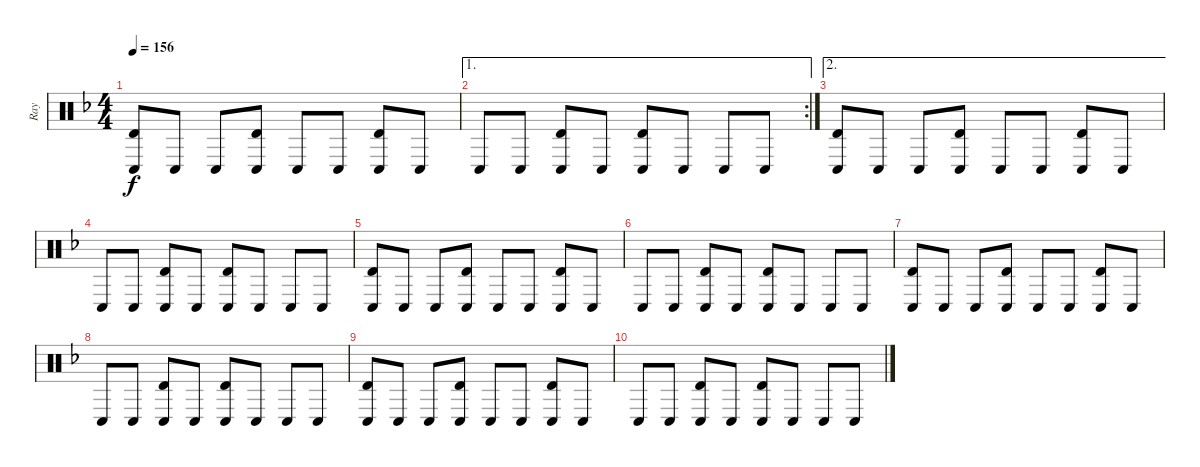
\track ("Ray" "Ray") {instrument percussion}
\staff {score}
\articulation defaults
\ts (4 4)
\tempo 156
\clef neutral
\ks f
("Timbale high (hit)" "Conga low (hit)").8{dy f} "Conga low (hit)".8 "Conga low (hit)".8 ("Timbale high (hit)" "Conga low (hit)").8 "Conga low (hit)".8 "Conga low (hit)".8 ("Timbale high (hit)" "Conga low (hit)").8 "Conga low (hit)".8 |
\ae 1
\rc 2 "Conga low (hit)".8 "Conga low (hit)".8
("Timbale high (hit)" "Conga low (hit)").8 "Conga low (hit)".8 ("Timbale high (hit)" "Conga low (hit)").8 "Conga low (hit)".8 "Conga low (hit)".8 "Conga low (hit)".8 |
\ae 2
("Timbale high (hit)" "Conga low (hit)").8 "Conga low (hit)".8 "Conga low (hit)".8 ("Timbale high (hit)" "Conga low (hit)").8 "Conga low (hit)".8 "Conga low (hit)".8 ("Timbale high (hit)" "Conga low (hit)").8 "Conga low (hit)".8 |
"Conga low (hit)".8 "Conga low (hit)".8 ("Timbale high (hit)" "Conga low (hit)").8 "Conga low (hit)".8 ("Timbale high (hit)" "Conga low (hit)").8 "Conga low (hit)".8 "Conga low (hit)".8 "Conga low (hit)".8 |
("Timbale high (hit)" "Conga low (hit)").8 "Conga low (hit)".8 "Conga low (hit)".8 ("Timbale high (hit)" "Conga low (hit)").8 "Conga low (hit)".8 "Conga low (hit)".8 ("Timbale high (hit)" "Conga low (hit)").8 "Conga low (hit)".8 |
"Conga low (hit)".8 "Conga low (hit)".8 ("Timbale high (hit)" "Conga low (hit)").8 "Conga low (hit)".8 ("Timbale high (hit)" "Conga low (hit)").8 "Conga low (hit)".8 "Conga low (hit)".8 "Conga low (hit)".8 |
("Timbale high (hit)" "Conga low (hit)").8 "Conga low (hit)".8 "Conga low (hit)".8 ("Timbale high (hit)" "Conga low (hit)").8 "Conga low (hit)".8 "Conga low (hit)".8 ("Timbale high (hit)" "Conga low (hit)").8 "Conga low (hit)".8 |
"Conga low (hit)".8 "Conga low (hit)".8 ("Timbale high (hit)" "Conga low (hit)").8 "Conga low (hit)".8 ("Timbale high (hit)" "Conga low (hit)").8 "Conga low (hit)".8 "Conga low (hit)".8 "Conga low (hit)".8 |
("Timbale high (hit)" "Conga low (hit)").8 "Conga low (hit)".8 "Conga low (hit)".8 ("Timbale high (hit)" "Conga low (hit)").8 "Conga low (hit)".8 "Conga low (hit)".8 ("Timbale high (hit)" "Conga low (hit)").8 "Conga low (hit)".8 |
"Conga low (hit)".8 "Conga low (hit)".8 ("Timbale high (hit)" "Conga low (hit)").8 "Conga low (hit)".8 ("Timbale high (hit)" "Conga low (hit)").8 "Conga low (hit)".8 "Conga low (hit)".8 "Conga low (hit)".8
